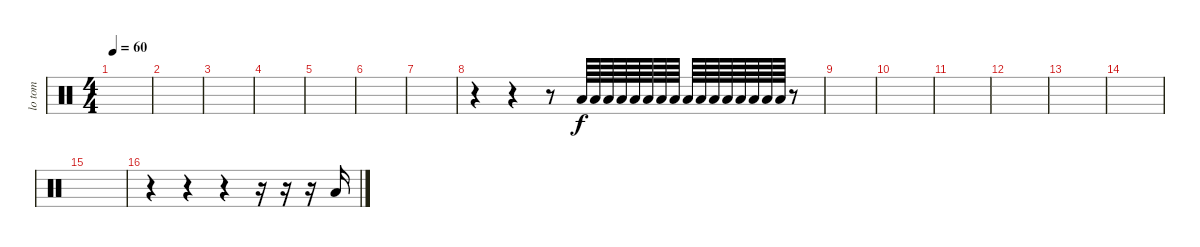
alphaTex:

\track ("lo tom" "lo tom") {instrument percussion}
\staff {score}
\articulation defaults
\ts (4 4)
\tempo 60
\clef neutral
\ks c
|
|
|
|
|
|
|
r.4 r.4 r.8 "Low Tom (hit)".64 "Low Tom (hit)".64 "Low Tom (hit)".64 "Low Tom (hit)".64 "Low Tom (hit)".64 "Low Tom (hit)".64 "Low Tom (hit)".64 "Low Tom (hit)".64 "Low Tom (hit)".64 "Low Tom (hit)".64 "Low Tom (hit)".64 "Low Tom (hit)".64 "Low Tom (hit)".64 "Low Tom (hit)".64 "Low Tom (hit)".64 "Low Tom (hit)".64 r.8 |
|
|
|
|
|
|
|
r.4 r.4 r.4 r.16 r.16 r.16 "Low Tom (hit)".16
